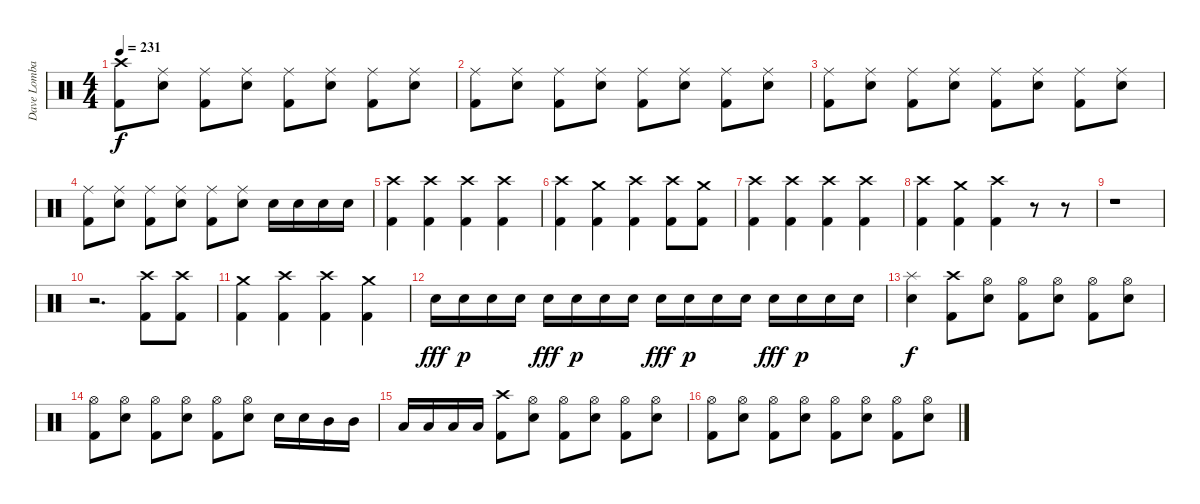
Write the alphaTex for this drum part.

\track ("Dave Lombardo" "Dave Lomba") {instrument percussion}
\staff {score}
\articulation defaults
\ts (4 4)
\tempo 231
\clef neutral
\ks c
("Kick (hit) 2" "Crash high (hit)").8{dy f} ("Ride (middle)" "Electric Snare (hit)").8 ("Ride (middle)" "Kick (hit) 2").8 ("Ride (middle)" "Electric Snare (hit)").8 ("Ride (middle)" "Kick (hit) 2").8 ("Ride (middle)" "Electric Snare (hit)").8 ("Ride (middle)" "Kick (hit) 2").8 ("Ride (middle)" "Electric Snare (hit)").8 |
("Ride (middle)" "Kick (hit) 2").8 ("Ride (middle)" "Electric Snare (hit)").8 ("Ride (middle)" "Kick (hit) 2").8 ("Ride (middle)" "Electric Snare (hit)").8 ("Ride (middle)" "Kick (hit) 2").8 ("Ride (middle)" "Electric Snare (hit)").8 ("Ride (middle)" "Kick (hit) 2").8 ("Ride (middle)" "Electric Snare (hit)").8 |
("Ride (middle)" "Kick (hit) 2").8 ("Ride (middle)" "Electric Snare (hit)").8 ("Ride (middle)" "Kick (hit) 2").8 ("Ride (middle)" "Electric Snare (hit)").8 ("Ride (middle)" "Kick (hit) 2").8 ("Ride (middle)" "Electric Snare (hit)").8 ("Ride (middle)" "Kick (hit) 2").8 ("Ride (middle)" "Electric Snare (hit)").8 |
("Ride (middle)" "Kick (hit) 2").8 ("Ride (middle)" "Electric Snare (hit)").8 ("Ride (middle)" "Kick (hit) 2").8 ("Ride (middle)" "Electric Snare (hit)").8 ("Ride (middle)" "Kick (hit) 2").8 ("Ride (middle)" "Electric Snare (hit)").8 "Electric Snare (hit)".16 "Electric Snare (hit)".16 "Electric Snare (hit)".16 "Electric Snare (hit)".16 |
("Crash high (hit)" "Kick (hit) 2").4 ("Crash high (hit)" "Kick (hit) 2").4 ("Crash high (hit)" "Kick (hit) 2").4 ("Crash high (hit)" "Kick (hit) 2").4 |
("Crash high (hit)" "Kick (hit) 2").4 ("Crash medium (hit)" "Kick (hit) 2").4 ("Crash high (hit)" "Kick (hit) 2").4 ("Crash high (hit)" "Kick (hit) 2").8 ("Crash medium (hit)" "Kick (hit) 2").8 |
("Crash high (hit)" "Kick (hit) 2").4 ("Crash high (hit)" "Kick (hit) 2").4 ("Crash high (hit)" "Kick (hit) 2").4 ("Crash high (hit)" "Kick (hit) 2").4 |
("Crash high (hit)" "Kick (hit) 2").4 ("Crash medium (hit)" "Kick (hit) 2").4 ("Crash high (hit)" "Kick (hit) 2").4 r.8 r.8 |
r.1 |
r.2{d} ("Crash high (hit)" "Kick (hit) 2").8 ("Crash high (hit)" "Kick (hit) 2").8 |
("Kick (hit) 2" "Crash medium (hit)").4 ("Crash high (hit)" "Kick (hit) 2").4 ("Crash high (hit)" "Kick (hit) 2").4 ("Crash medium (hit)" "Kick (hit) 2").4 |
"Electric Snare (hit)".16{dy fff} "Electric Snare (hit)".16{dy p} "Electric Snare (hit)".16 "Electric Snare (hit)".16 "Electric Snare (hit)".16{dy fff} "Electric Snare (hit)".16{dy p} "Electric Snare (hit)".16 "Electric Snare (hit)".16 "Electric Snare (hit)".16{dy fff} "Electric Snare (hit)".16{dy p} "Electric Snare (hit)".16 "Electric Snare (hit)".16 "Electric Snare (hit)".16{dy fff} "Electric Snare (hit)".16{dy p} "Electric Snare (hit)".16 "Electric Snare (hit)".16 |
("Splash (hit)" "Electric Snare (hit)").4{dy f} ("Crash high (hit)" "Kick (hit) 2").8 ("Hi-Hat (open)" "Electric Snare (hit)").8 ("Hi-Hat (open)" "Kick (hit) 2").8 ("Hi-Hat (open)" "Electric Snare (hit)").8 ("Hi-Hat (open)" "Kick (hit) 2").8 ("Hi-Hat (open)" "Electric Snare (hit)").8 |
("Hi-Hat (open)" "Kick (hit) 2").8 ("Hi-Hat (open)" "Electric Snare (hit)").8 ("Hi-Hat (open)" "Kick (hit) 2").8 ("Hi-Hat (open)" "Electric Snare (hit)").8 ("Hi-Hat (open)" "Kick (hit) 2").8 ("Hi-Hat (open)" "Electric Snare (hit)").8 "Electric Snare (hit)".16 "Electric Snare (hit)".16 "Mid Tom (hit)".16 "Mid Tom (hit)".16 |
"Low Tom (hit)".16 "Low Tom (hit)".16 "Low Tom (hit)".16 "Low Tom (hit)".16 ("Crash high (hit)" "Kick (hit) 2").8 ("Hi-Hat (open)" "Electric Snare (hit)").8 ("Hi-Hat (open)" "Kick (hit) 2").8 ("Hi-Hat (open)" "Electric Snare (hit)").8 ("Hi-Hat (open)" "Kick (hit) 2").8 ("Hi-Hat (open)" "Electric Snare (hit)").8 |
("Hi-Hat (open)" "Kick (hit) 2").8 ("Hi-Hat (open)" "Electric Snare (hit)").8 ("Hi-Hat (open)" "Kick (hit) 2").8 ("Hi-Hat (open)" "Electric Snare (hit)").8 ("Hi-Hat (open)" "Kick (hit) 2").8 ("Hi-Hat (open)" "Electric Snare (hit)").8 ("Hi-Hat (open)" "Kick (hit) 2").8 ("Hi-Hat (open)" "Electric Snare (hit)").8
